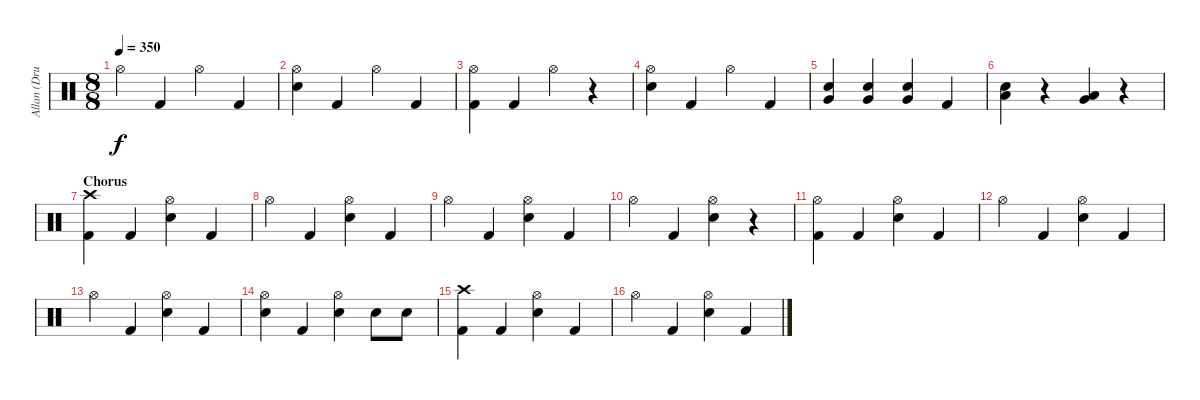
\track ("Allan (Drums)" "Allan (Dru") {instrument percussion}
\staff {score}
\articulation defaults
\ts (8 8)
\tempo 350
\clef neutral
\ks c "Hi-Hat (open)".4{dy f} "Kick (hit) 2".4 "Hi-Hat (open)".4 "Kick (hit) 2".4
|
("Hi-Hat (open)" "Snare (hit) 2").4 "Kick (hit) 2".4 "Hi-Hat (open)".4 "Kick (hit) 2".4 |
("Hi-Hat (open)" "Kick (hit) 2").4 "Kick (hit) 2".4 "Hi-Hat (open)".4 r.4 |
("Hi-Hat (open)" "Snare (hit) 2").4 "Kick (hit) 2".4 "Hi-Hat (open)".4 "Kick (hit) 2".4 |
("Very Low Tom (hit)" "Snare (hit) 2").4 ("Very Low Tom (hit)" "Snare (hit) 2").4 ("Very Low Tom (hit)" "Snare (hit) 2").4 "Kick (hit) 2".4 |
("Low Tom (hit)" "Snare (hit) 2").4 r.4 ("Very Low Tom (hit)" "Low Tom (hit)").4 r.4 |
\section ("" "Chorus")
("Crash high (hit)" "Kick (hit) 2").4 "Kick (hit) 2".4 ("Hi-Hat (open)" "Snare (hit) 2").4 "Kick (hit) 2".4 |
"Hi-Hat (open)".4 "Kick (hit) 2".4 ("Hi-Hat (open)" "Snare (hit) 2").4 "Kick (hit) 2".4 |
"Hi-Hat (open)".4 "Kick (hit) 2".4 ("Hi-Hat (open)" "Snare (hit) 2").4 "Kick (hit) 2".4 |
"Hi-Hat (open)".4 "Kick (hit) 2".4 ("Hi-Hat (open)" "Snare (hit) 2").4 r.4 |
("Hi-Hat (open)" "Kick (hit) 2").4 "Kick (hit) 2".4 ("Hi-Hat (open)" "Snare (hit) 2").4 "Kick (hit) 2".4 |
"Hi-Hat (open)".4 "Kick (hit) 2".4 ("Hi-Hat (open)" "Snare (hit) 2").4 "Kick (hit) 2".4 |
"Hi-Hat (open)".4 "Kick (hit) 2".4 ("Hi-Hat (open)" "Snare (hit) 2").4 "Kick (hit) 2".4 |
("Hi-Hat (open)" "Snare (hit) 2").4 "Kick (hit) 2".4 ("Hi-Hat (open)" "Snare (hit) 2").4 "Snare (hit) 2".8 "Snare (hit) 2".8 |
("Crash high (hit)" "Kick (hit) 2").4 "Kick (hit) 2".4 ("Hi-Hat (open)" "Snare (hit) 2").4 "Kick (hit) 2".4 |
"Hi-Hat (open)".4 "Kick (hit) 2".4 ("Hi-Hat (open)" "Snare (hit) 2").4 "Kick (hit) 2".4
